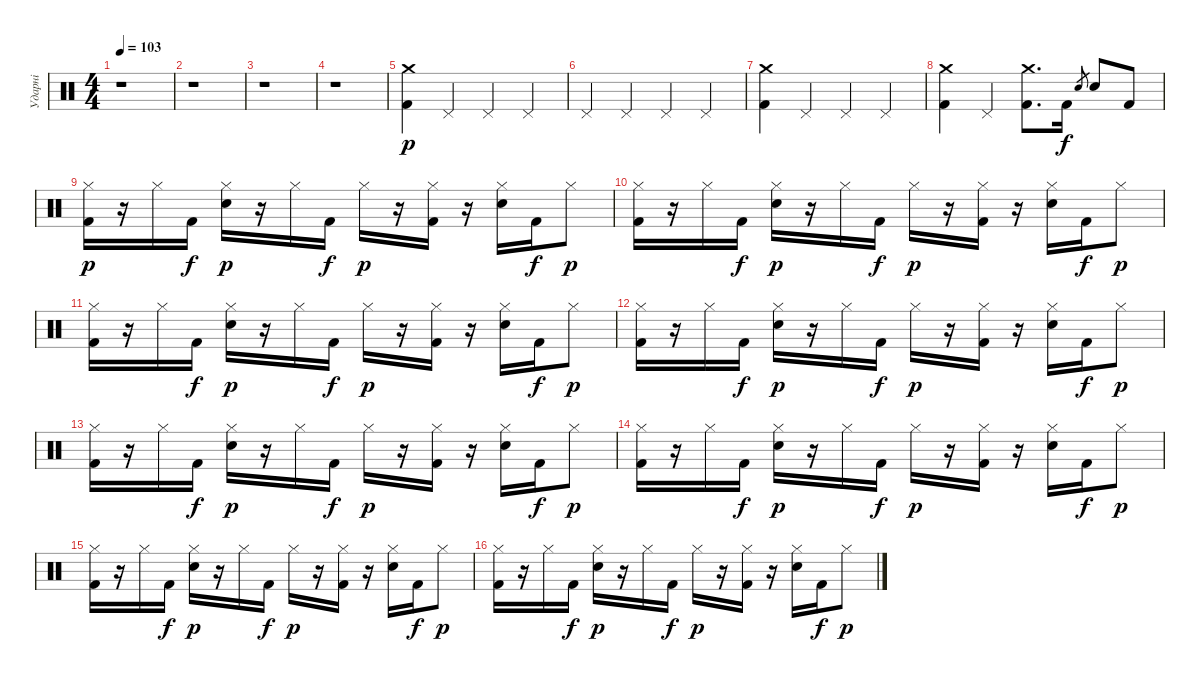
\track ("Ударні" "Ударні") {instrument percussion}
\staff {score}
\articulation defaults
\ts (4 4)
\tempo 103
\clef neutral
\ks c
r.1{dy p} |
r.1 |
r.1 |
r.1 |
("Crash medium (hit)" "Kick (hit) 2").4 "Pedal Hi-Hat (hit)".4 "Pedal Hi-Hat (hit)".4 "Pedal Hi-Hat (hit)".4 |
"Pedal Hi-Hat (hit)".4 "Pedal Hi-Hat (hit)".4 "Pedal Hi-Hat (hit)".4 "Pedal Hi-Hat (hit)".4 |
("Crash medium (hit)" "Kick (hit) 2").4 "Pedal Hi-Hat (hit)".4 "Pedal Hi-Hat (hit)".4 "Pedal Hi-Hat (hit)".4 |
("Crash medium (hit)" "Kick (hit) 2").4 "Pedal Hi-Hat (hit)".4 ("Crash medium (hit)" "Kick (hit) 2").8{d} "Kick (hit) 2".16{dy f} "Electric Snare (hit)".8{gr} "Electric Snare (hit)".8 "Kick (hit) 2".8 |
("Hi-Hat (closed)" "Kick (hit) 2").16{dy p} r.16 "Hi-Hat (closed)".16 "Kick (hit) 2".16{dy f} ("Hi-Hat (closed)" "Electric Snare (hit)").16{dy p} r.16 "Hi-Hat (closed)".16 "Kick (hit) 2".16{dy f} "Hi-Hat (closed)".16{dy p} r.16 ("Hi-Hat (closed)" "Kick (hit) 2").16 r.16 ("Hi-Hat (closed)" "Electric Snare (hit)").16 "Kick (hit) 2".16{dy f} "Hi-Hat (closed)".8{dy p} |
("Hi-Hat (closed)" "Kick (hit) 2").16 r.16 "Hi-Hat (closed)".16 "Kick (hit) 2".16{dy f} ("Hi-Hat (closed)" "Electric Snare (hit)").16{dy p} r.16 "Hi-Hat (closed)".16 "Kick (hit) 2".16{dy f} "Hi-Hat (closed)".16{dy p} r.16 ("Hi-Hat (closed)" "Kick (hit) 2").16 r.16 ("Hi-Hat (closed)" "Electric Snare (hit)").16 "Kick (hit) 2".16{dy f} "Hi-Hat (closed)".8{dy p} |
("Hi-Hat (closed)" "Kick (hit) 2").16 r.16 "Hi-Hat (closed)".16 "Kick (hit) 2".16{dy f} ("Hi-Hat (closed)" "Electric Snare (hit)").16{dy p} r.16 "Hi-Hat (closed)".16 "Kick (hit) 2".16{dy f} "Hi-Hat (closed)".16{dy p} r.16 ("Hi-Hat (closed)" "Kick (hit) 2").16 r.16 ("Hi-Hat (closed)" "Electric Snare (hit)").16 "Kick (hit) 2".16{dy f} "Hi-Hat (closed)".8{dy p} |
("Hi-Hat (closed)" "Kick (hit) 2").16 r.16 "Hi-Hat (closed)".16 "Kick (hit) 2".16{dy f} ("Hi-Hat (closed)" "Electric Snare (hit)").16{dy p} r.16 "Hi-Hat (closed)".16 "Kick (hit) 2".16{dy f} "Hi-Hat (closed)".16{dy p} r.16 ("Hi-Hat (closed)" "Kick (hit) 2").16 r.16 ("Hi-Hat (closed)" "Electric Snare (hit)").16 "Kick (hit) 2".16{dy f} "Hi-Hat (closed)".8{dy p} |
("Hi-Hat (closed)" "Kick (hit) 2").16 r.16 "Hi-Hat (closed)".16 "Kick (hit) 2".16{dy f} ("Hi-Hat (closed)" "Electric Snare (hit)").16{dy p} r.16 "Hi-Hat (closed)".16 "Kick (hit) 2".16{dy f} "Hi-Hat (closed)".16{dy p} r.16 ("Hi-Hat (closed)" "Kick (hit) 2").16 r.16 ("Hi-Hat (closed)" "Electric Snare (hit)").16 "Kick (hit) 2".16{dy f} "Hi-Hat (closed)".8{dy p} |
("Hi-Hat (closed)" "Kick (hit) 2").16 r.16 "Hi-Hat (closed)".16 "Kick (hit) 2".16{dy f} ("Hi-Hat (closed)" "Electric Snare (hit)").16{dy p} r.16 "Hi-Hat (closed)".16 "Kick (hit) 2".16{dy f} "Hi-Hat (closed)".16{dy p} r.16 ("Hi-Hat (closed)" "Kick (hit) 2").16 r.16 ("Hi-Hat (closed)" "Electric Snare (hit)").16 "Kick (hit) 2".16{dy f} "Hi-Hat (closed)".8{dy p} |
("Hi-Hat (closed)" "Kick (hit) 2").16 r.16 "Hi-Hat (closed)".16 "Kick (hit) 2".16{dy f} ("Hi-Hat (closed)" "Electric Snare (hit)").16{dy p} r.16 "Hi-Hat (closed)".16 "Kick (hit) 2".16{dy f} "Hi-Hat (closed)".16{dy p} r.16 ("Hi-Hat (closed)" "Kick (hit) 2").16 r.16 ("Hi-Hat (closed)" "Electric Snare (hit)").16 "Kick (hit) 2".16{dy f} "Hi-Hat (closed)".8{dy p} |
("Hi-Hat (closed)" "Kick (hit) 2").16 r.16 "Hi-Hat (closed)".16 "Kick (hit) 2".16{dy f} ("Hi-Hat (closed)" "Electric Snare (hit)").16{dy p} r.16 "Hi-Hat (closed)".16 "Kick (hit) 2".16{dy f} "Hi-Hat (closed)".16{dy p} r.16 ("Hi-Hat (closed)" "Kick (hit) 2").16 r.16 ("Hi-Hat (closed)" "Electric Snare (hit)").16 "Kick (hit) 2".16{dy f} "Hi-Hat (closed)".8{dy p}
